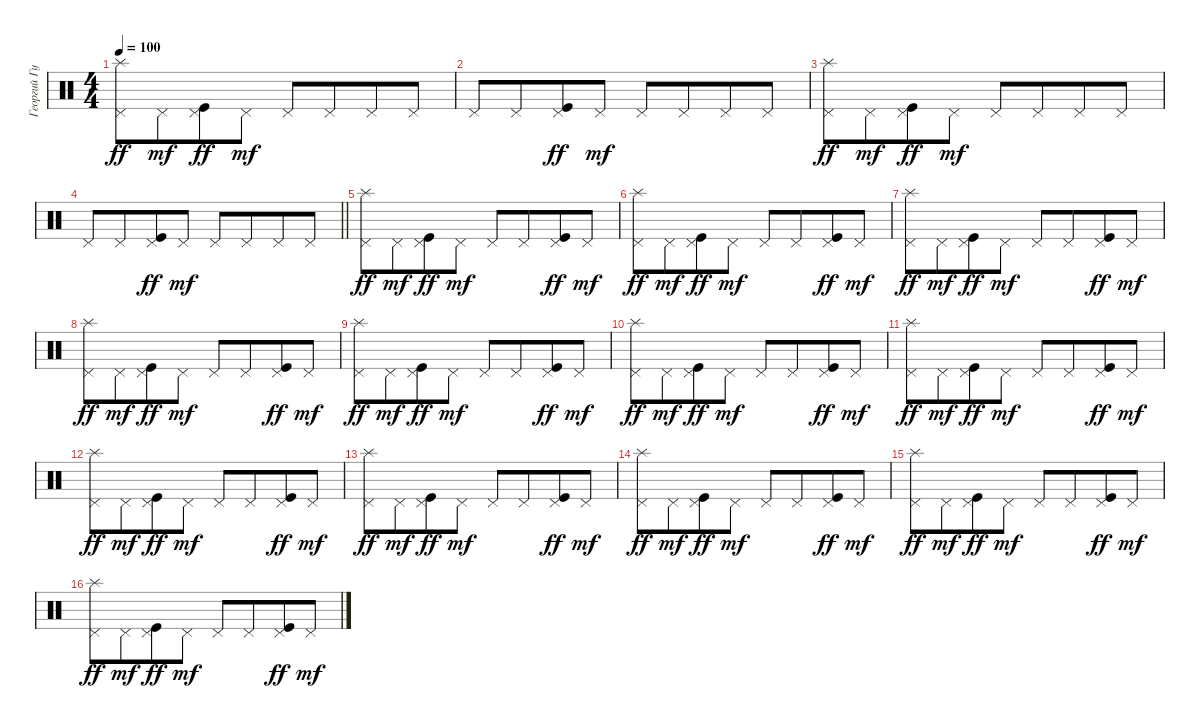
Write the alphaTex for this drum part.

\track ("Георгий Гурьянов" "Георгий Гу") {instrument percussion}
\staff {score}
\articulation defaults
\ts (4 4)
\tempo 100
\clef neutral
\ks c
("Pedal Hi-Hat (hit)" "Splash (hit)").8{dy ff} "Pedal Hi-Hat (hit)".8{dy mf beam merge} ("Pedal Hi-Hat (hit)" "Kick (hit)").8{dy ff} "Pedal Hi-Hat (hit)".8{dy mf} "Pedal Hi-Hat (hit)".8 "Pedal Hi-Hat (hit)".8{beam merge} "Pedal Hi-Hat (hit)".8 "Pedal Hi-Hat (hit)".8 |
"Pedal Hi-Hat (hit)".8 "Pedal Hi-Hat (hit)".8{beam merge} ("Pedal Hi-Hat (hit)" "Kick (hit)").8{dy ff} "Pedal Hi-Hat (hit)".8{dy mf} "Pedal Hi-Hat (hit)".8 "Pedal Hi-Hat (hit)".8{beam merge} "Pedal Hi-Hat (hit)".8 "Pedal Hi-Hat (hit)".8 |
("Pedal Hi-Hat (hit)" "Splash (hit)").8{dy ff} "Pedal Hi-Hat (hit)".8{dy mf beam merge} ("Pedal Hi-Hat (hit)" "Kick (hit)").8{dy ff} "Pedal Hi-Hat (hit)".8{dy mf} "Pedal Hi-Hat (hit)".8 "Pedal Hi-Hat (hit)".8{beam merge} "Pedal Hi-Hat (hit)".8 "Pedal Hi-Hat (hit)".8 |
\barLineRight lightlight "Pedal Hi-Hat (hit)".8 "Pedal Hi-Hat (hit)".8{beam merge}
("Pedal Hi-Hat (hit)" "Kick (hit)").8{dy ff} "Pedal Hi-Hat (hit)".8{dy mf} "Pedal Hi-Hat (hit)".8 "Pedal Hi-Hat (hit)".8{beam merge} "Pedal Hi-Hat (hit)".8 "Pedal Hi-Hat (hit)".8 |
("Pedal Hi-Hat (hit)" "Splash (hit)").8{dy ff} "Pedal Hi-Hat (hit)".8{dy mf beam merge} ("Pedal Hi-Hat (hit)" "Kick (hit)").8{dy ff} "Pedal Hi-Hat (hit)".8{dy mf} "Pedal Hi-Hat (hit)".8 "Pedal Hi-Hat (hit)".8{beam merge} ("Pedal Hi-Hat (hit)" "Kick (hit)").8{dy ff} "Pedal Hi-Hat (hit)".8{dy mf} |
("Pedal Hi-Hat (hit)" "Splash (hit)").8{dy ff} "Pedal Hi-Hat (hit)".8{dy mf beam merge} ("Pedal Hi-Hat (hit)" "Kick (hit)").8{dy ff} "Pedal Hi-Hat (hit)".8{dy mf} "Pedal Hi-Hat (hit)".8 "Pedal Hi-Hat (hit)".8{beam merge} ("Pedal Hi-Hat (hit)" "Kick (hit)").8{dy ff} "Pedal Hi-Hat (hit)".8{dy mf} |
("Pedal Hi-Hat (hit)" "Splash (hit)").8{dy ff} "Pedal Hi-Hat (hit)".8{dy mf beam merge} ("Pedal Hi-Hat (hit)" "Kick (hit)").8{dy ff} "Pedal Hi-Hat (hit)".8{dy mf} "Pedal Hi-Hat (hit)".8 "Pedal Hi-Hat (hit)".8{beam merge} ("Pedal Hi-Hat (hit)" "Kick (hit)").8{dy ff} "Pedal Hi-Hat (hit)".8{dy mf} |
("Pedal Hi-Hat (hit)" "Splash (hit)").8{dy ff} "Pedal Hi-Hat (hit)".8{dy mf beam merge} ("Pedal Hi-Hat (hit)" "Kick (hit)").8{dy ff} "Pedal Hi-Hat (hit)".8{dy mf} "Pedal Hi-Hat (hit)".8 "Pedal Hi-Hat (hit)".8{beam merge} ("Pedal Hi-Hat (hit)" "Kick (hit)").8{dy ff} "Pedal Hi-Hat (hit)".8{dy mf} |
("Pedal Hi-Hat (hit)" "Splash (hit)").8{dy ff} "Pedal Hi-Hat (hit)".8{dy mf beam merge} ("Pedal Hi-Hat (hit)" "Kick (hit)").8{dy ff} "Pedal Hi-Hat (hit)".8{dy mf} "Pedal Hi-Hat (hit)".8 "Pedal Hi-Hat (hit)".8{beam merge} ("Pedal Hi-Hat (hit)" "Kick (hit)").8{dy ff} "Pedal Hi-Hat (hit)".8{dy mf} |
("Pedal Hi-Hat (hit)" "Splash (hit)").8{dy ff} "Pedal Hi-Hat (hit)".8{dy mf beam merge} ("Pedal Hi-Hat (hit)" "Kick (hit)").8{dy ff} "Pedal Hi-Hat (hit)".8{dy mf} "Pedal Hi-Hat (hit)".8 "Pedal Hi-Hat (hit)".8{beam merge} ("Pedal Hi-Hat (hit)" "Kick (hit)").8{dy ff} "Pedal Hi-Hat (hit)".8{dy mf} |
("Pedal Hi-Hat (hit)" "Splash (hit)").8{dy ff} "Pedal Hi-Hat (hit)".8{dy mf beam merge} ("Pedal Hi-Hat (hit)" "Kick (hit)").8{dy ff} "Pedal Hi-Hat (hit)".8{dy mf} "Pedal Hi-Hat (hit)".8 "Pedal Hi-Hat (hit)".8{beam merge} ("Pedal Hi-Hat (hit)" "Kick (hit)").8{dy ff} "Pedal Hi-Hat (hit)".8{dy mf} |
("Pedal Hi-Hat (hit)" "Splash (hit)").8{dy ff} "Pedal Hi-Hat (hit)".8{dy mf beam merge} ("Pedal Hi-Hat (hit)" "Kick (hit)").8{dy ff} "Pedal Hi-Hat (hit)".8{dy mf} "Pedal Hi-Hat (hit)".8 "Pedal Hi-Hat (hit)".8{beam merge} ("Pedal Hi-Hat (hit)" "Kick (hit)").8{dy ff} "Pedal Hi-Hat (hit)".8{dy mf} |
("Pedal Hi-Hat (hit)" "Splash (hit)").8{dy ff} "Pedal Hi-Hat (hit)".8{dy mf beam merge} ("Pedal Hi-Hat (hit)" "Kick (hit)").8{dy ff} "Pedal Hi-Hat (hit)".8{dy mf} "Pedal Hi-Hat (hit)".8 "Pedal Hi-Hat (hit)".8{beam merge} ("Pedal Hi-Hat (hit)" "Kick (hit)").8{dy ff} "Pedal Hi-Hat (hit)".8{dy mf} |
("Pedal Hi-Hat (hit)" "Splash (hit)").8{dy ff} "Pedal Hi-Hat (hit)".8{dy mf beam merge} ("Pedal Hi-Hat (hit)" "Kick (hit)").8{dy ff} "Pedal Hi-Hat (hit)".8{dy mf} "Pedal Hi-Hat (hit)".8 "Pedal Hi-Hat (hit)".8{beam merge} ("Pedal Hi-Hat (hit)" "Kick (hit)").8{dy ff} "Pedal Hi-Hat (hit)".8{dy mf} |
("Pedal Hi-Hat (hit)" "Splash (hit)").8{dy ff} "Pedal Hi-Hat (hit)".8{dy mf beam merge} ("Pedal Hi-Hat (hit)" "Kick (hit)").8{dy ff} "Pedal Hi-Hat (hit)".8{dy mf} "Pedal Hi-Hat (hit)".8 "Pedal Hi-Hat (hit)".8{beam merge} ("Pedal Hi-Hat (hit)" "Kick (hit)").8{dy ff} "Pedal Hi-Hat (hit)".8{dy mf} |
("Pedal Hi-Hat (hit)" "Splash (hit)").8{dy ff} "Pedal Hi-Hat (hit)".8{dy mf beam merge} ("Pedal Hi-Hat (hit)" "Kick (hit)").8{dy ff} "Pedal Hi-Hat (hit)".8{dy mf} "Pedal Hi-Hat (hit)".8 "Pedal Hi-Hat (hit)".8{beam merge} ("Pedal Hi-Hat (hit)" "Kick (hit)").8{dy ff} "Pedal Hi-Hat (hit)".8{dy mf}
